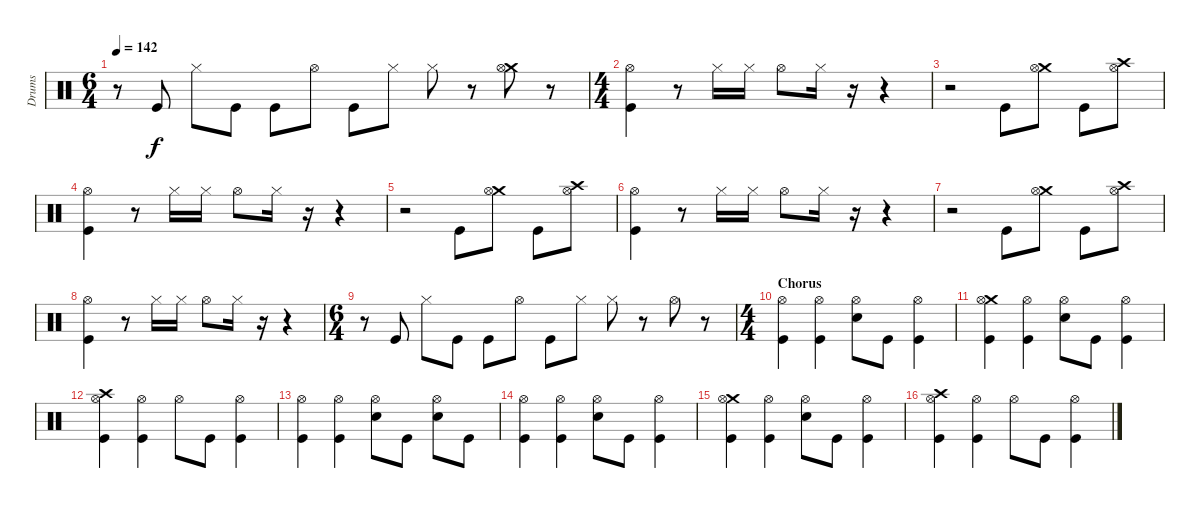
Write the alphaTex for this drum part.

\track ("Drums" "Drums") {instrument percussion}
\staff {score}
\articulation defaults
\ts (6 4)
\tempo 142
\clef neutral
\ks c
r.8{dy f} "Kick (hit)".8 "Hi-Hat (closed)".8 "Kick (hit)".8 "Kick (hit)".8 "Hi-Hat (open)".8 "Kick (hit)".8 "Hi-Hat (closed)".8 "Hi-Hat (closed)".8 r.8 ("Crash medium (hit)" "Hi-Hat (open)").8 r.8 |
\ts (4 4)
("Hi-Hat (open)" "Kick (hit)").4 r.8 "Hi-Hat (closed)".16 "Hi-Hat (closed)".16 "Hi-Hat (open)".8 "Hi-Hat (closed)".16 r.16 r.4 |
r.2 "Kick (hit)".8 ("Crash medium (hit)" "Hi-Hat (open)").8 "Kick (hit)".8 ("Crash high (hit)" "Hi-Hat (open)").8 |
("Hi-Hat (open)" "Kick (hit)").4 r.8 "Hi-Hat (closed)".16 "Hi-Hat (closed)".16 "Hi-Hat (open)".8 "Hi-Hat (closed)".16 r.16 r.4 |
r.2 "Kick (hit)".8 ("Crash medium (hit)" "Hi-Hat (open)").8 "Kick (hit)".8 ("Crash high (hit)" "Hi-Hat (open)").8 |
("Hi-Hat (open)" "Kick (hit)").4 r.8 "Hi-Hat (closed)".16 "Hi-Hat (closed)".16 "Hi-Hat (open)".8 "Hi-Hat (closed)".16 r.16 r.4 |
r.2 "Kick (hit)".8 ("Crash medium (hit)" "Hi-Hat (open)").8 "Kick (hit)".8 ("Crash high (hit)" "Hi-Hat (open)").8 |
("Hi-Hat (open)" "Kick (hit)").4 r.8 "Hi-Hat (closed)".16 "Hi-Hat (closed)".16 "Hi-Hat (open)".8 "Hi-Hat (closed)".16 r.16 r.4 |
\ts (6 4)
r.8 "Kick (hit)".8 "Hi-Hat (closed)".8 "Kick (hit)".8 "Kick (hit)".8 "Hi-Hat (open)".8 "Kick (hit)".8 "Hi-Hat (closed)".8 "Hi-Hat (closed)".8 r.8 "Hi-Hat (open)".8 r.8 |
\ts (4 4)
\section ("" "Chorus")
("Hi-Hat (open)" "Kick (hit)").4 ("Hi-Hat (open)" "Kick (hit)").4 ("Hi-Hat (open)" "Snare (hit) 2").8 "Kick (hit)".8 ("Hi-Hat (open)" "Kick (hit)").4 |
("Crash medium (hit)" "Hi-Hat (open)" "Kick (hit)").4 ("Hi-Hat (open)" "Kick (hit)").4 ("Hi-Hat (open)" "Snare (hit) 2").8 "Kick (hit)".8 ("Hi-Hat (open)" "Kick (hit)").4 |
("Crash high (hit)" "Hi-Hat (open)" "Kick (hit)").4 ("Hi-Hat (open)" "Kick (hit)").4 "Hi-Hat (open)".8 "Kick (hit)".8 ("Hi-Hat (open)" "Kick (hit)").4 |
("Hi-Hat (open)" "Kick (hit)").4 ("Hi-Hat (open)" "Kick (hit)").4 ("Hi-Hat (open)" "Snare (hit) 2").8 "Kick (hit)".8 ("Hi-Hat (open)" "Snare (hit) 2").8 "Kick (hit)".8 |
("Hi-Hat (open)" "Kick (hit)").4 ("Hi-Hat (open)" "Kick (hit)").4 ("Hi-Hat (open)" "Snare (hit) 2").8 "Kick (hit)".8 ("Hi-Hat (open)" "Kick (hit)").4 |
("Crash medium (hit)" "Hi-Hat (open)" "Kick (hit)").4 ("Hi-Hat (open)" "Kick (hit)").4 ("Hi-Hat (open)" "Snare (hit) 2").8 "Kick (hit)".8 ("Hi-Hat (open)" "Kick (hit)").4 |
("Crash high (hit)" "Hi-Hat (open)" "Kick (hit)").4 ("Hi-Hat (open)" "Kick (hit)").4 "Hi-Hat (open)".8 "Kick (hit)".8 ("Hi-Hat (open)" "Kick (hit)").4
